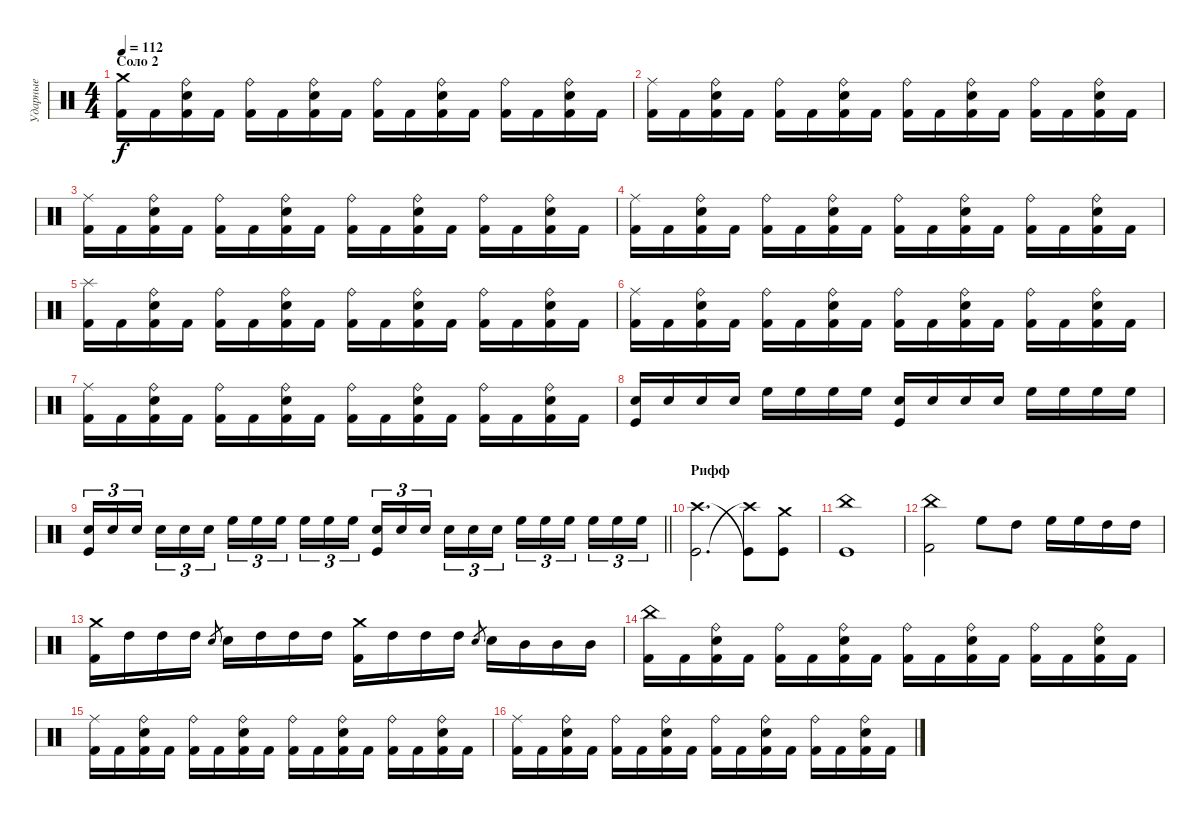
\track ("Ударные" "Ударные") {instrument percussion}
\staff {score}
\articulation defaults
\ts (4 4)
\section ("" "Соло 2")
\tempo 112
\clef neutral
\ks aminor
("Kick (hit) 2" "Crash medium (hit)").16{dy f} "Kick (hit) 2".16 ("Electric Snare (hit)" "Ride (bell)" "Kick (hit) 2").16 "Kick (hit) 2".16 ("Kick (hit) 2" "Ride (bell)").16 "Kick (hit) 2".16 ("Kick (hit) 2" "Electric Snare (hit)" "Ride (bell)").16 "Kick (hit) 2".16 ("Kick (hit) 2" "Ride (bell)").16 "Kick (hit) 2".16 ("Kick (hit) 2" "Electric Snare (hit)" "Ride (bell)").16 "Kick (hit) 2".16 ("Kick (hit) 2" "Ride (bell)").16 "Kick (hit) 2".16 ("Kick (hit) 2" "Ride (bell)" "Electric Snare (hit)").16 "Kick (hit) 2".16 |
("Kick (hit) 2" "Ride (middle)").16 "Kick (hit) 2".16 ("Electric Snare (hit)" "Ride (bell)" "Kick (hit) 2").16 "Kick (hit) 2".16 ("Kick (hit) 2" "Ride (bell)").16 "Kick (hit) 2".16 ("Kick (hit) 2" "Electric Snare (hit)" "Ride (bell)").16 "Kick (hit) 2".16 ("Kick (hit) 2" "Ride (bell)").16 "Kick (hit) 2".16 ("Kick (hit) 2" "Electric Snare (hit)" "Ride (bell)").16 "Kick (hit) 2".16 ("Kick (hit) 2" "Ride (bell)").16 "Kick (hit) 2".16 ("Kick (hit) 2" "Ride (bell)" "Electric Snare (hit)").16 "Kick (hit) 2".16 |
("Kick (hit) 2" "Ride (middle)").16 "Kick (hit) 2".16 ("Electric Snare (hit)" "Ride (bell)" "Kick (hit) 2").16 "Kick (hit) 2".16 ("Kick (hit) 2" "Ride (bell)").16 "Kick (hit) 2".16 ("Kick (hit) 2" "Electric Snare (hit)" "Ride (bell)").16 "Kick (hit) 2".16 ("Kick (hit) 2" "Ride (bell)").16 "Kick (hit) 2".16 ("Kick (hit) 2" "Electric Snare (hit)" "Ride (bell)").16 "Kick (hit) 2".16 ("Kick (hit) 2" "Ride (bell)").16 "Kick (hit) 2".16 ("Kick (hit) 2" "Ride (bell)" "Electric Snare (hit)").16 "Kick (hit) 2".16 |
("Kick (hit) 2" "Ride (middle)").16 "Kick (hit) 2".16 ("Electric Snare (hit)" "Ride (bell)" "Kick (hit) 2").16 "Kick (hit) 2".16 ("Kick (hit) 2" "Ride (bell)").16 "Kick (hit) 2".16 ("Kick (hit) 2" "Electric Snare (hit)" "Ride (bell)").16 "Kick (hit) 2".16 ("Kick (hit) 2" "Ride (bell)").16 "Kick (hit) 2".16 ("Kick (hit) 2" "Electric Snare (hit)" "Ride (bell)").16 "Kick (hit) 2".16 ("Kick (hit) 2" "Ride (bell)").16 "Kick (hit) 2".16 ("Kick (hit) 2" "Ride (bell)" "Electric Snare (hit)").16 "Kick (hit) 2".16 |
("Kick (hit) 2" "Splash (hit)").16 "Kick (hit) 2".16 ("Electric Snare (hit)" "Ride (bell)" "Kick (hit) 2").16 "Kick (hit) 2".16 ("Kick (hit) 2" "Ride (bell)").16 "Kick (hit) 2".16 ("Kick (hit) 2" "Electric Snare (hit)" "Ride (bell)").16 "Kick (hit) 2".16 ("Kick (hit) 2" "Ride (bell)").16 "Kick (hit) 2".16 ("Kick (hit) 2" "Electric Snare (hit)" "Ride (bell)").16 "Kick (hit) 2".16 ("Kick (hit) 2" "Ride (bell)").16 "Kick (hit) 2".16 ("Kick (hit) 2" "Ride (bell)" "Electric Snare (hit)").16 "Kick (hit) 2".16 |
("Kick (hit) 2" "Ride (middle)").16 "Kick (hit) 2".16 ("Electric Snare (hit)" "Ride (bell)" "Kick (hit) 2").16 "Kick (hit) 2".16 ("Kick (hit) 2" "Ride (bell)").16 "Kick (hit) 2".16 ("Kick (hit) 2" "Electric Snare (hit)" "Ride (bell)").16 "Kick (hit) 2".16 ("Kick (hit) 2" "Ride (bell)").16 "Kick (hit) 2".16 ("Kick (hit) 2" "Electric Snare (hit)" "Ride (bell)").16 "Kick (hit) 2".16 ("Kick (hit) 2" "Ride (bell)").16 "Kick (hit) 2".16 ("Kick (hit) 2" "Ride (bell)" "Electric Snare (hit)").16 "Kick (hit) 2".16 |
("Kick (hit) 2" "Ride (middle)").16 "Kick (hit) 2".16 ("Electric Snare (hit)" "Ride (bell)" "Kick (hit) 2").16 "Kick (hit) 2".16 ("Kick (hit) 2" "Ride (bell)").16 "Kick (hit) 2".16 ("Kick (hit) 2" "Electric Snare (hit)" "Ride (bell)").16 "Kick (hit) 2".16 ("Kick (hit) 2" "Ride (bell)").16 "Kick (hit) 2".16 ("Kick (hit) 2" "Electric Snare (hit)" "Ride (bell)").16 "Kick (hit) 2".16 ("Kick (hit) 2" "Ride (bell)").16 "Kick (hit) 2".16 ("Kick (hit) 2" "Ride (bell)" "Electric Snare (hit)").16 "Kick (hit) 2".16 |
("Electric Snare (hit)" "Kick (hit)").16 "Electric Snare (hit)".16 "Electric Snare (hit)".16 "Electric Snare (hit)".16 "High Floor Tom (hit)".16 "High Floor Tom (hit)".16 "High Floor Tom (hit)".16 "High Floor Tom (hit)".16 ("Electric Snare (hit)" "Kick (hit)").16 "Electric Snare (hit)".16 "Electric Snare (hit)".16 "Electric Snare (hit)".16 "High Floor Tom (hit)".16 "High Floor Tom (hit)".16 "High Floor Tom (hit)".16 "High Floor Tom (hit)".16 |
\barLineRight lightlight
("Electric Snare (hit)" "Kick (hit)").16{tu (3 2)} "Electric Snare (hit)".16{tu (3 2)} "Electric Snare (hit)".16{tu (3 2) beam splitsecondary} "Electric Snare (hit)".16{tu (3 2)} "Electric Snare (hit)".16{tu (3 2)} "Electric Snare (hit)".16{tu (3 2)} "High Floor Tom (hit)".16{tu (3 2)} "High Floor Tom (hit)".16{tu (3 2)} "High Floor Tom (hit)".16{tu (3 2) beam splitsecondary} "High Floor Tom (hit)".16{tu (3 2)} "High Floor Tom (hit)".16{tu (3 2)} "High Floor Tom (hit)".16{tu (3 2)} ("Electric Snare (hit)" "Kick (hit)").16{tu (3 2)} "Electric Snare (hit)".16{tu (3 2)} "Electric Snare (hit)".16{tu (3 2) beam splitsecondary} "Electric Snare (hit)".16{tu (3 2)} "Electric Snare (hit)".16{tu (3 2)} "Electric Snare (hit)".16{tu (3 2)} "High Floor Tom (hit)".16{tu (3 2)} "High Floor Tom (hit)".16{tu (3 2)} "High Floor Tom (hit)".16{tu (3 2) beam splitsecondary} "High Floor Tom (hit)".16{tu (3 2)} "High Floor Tom (hit)".16{tu (3 2)} "High Floor Tom (hit)".16{tu (3 2)} |
\section ("" "Рифф")
("Crash high (hit)" "Kick (hit)").2{d} ("Kick (hit)"{t} "Crash high (hit)"{t}).8 ("Kick (hit)" "Crash medium (hit)").8 |
("Kick (hit)" "China (hit)").1 |
("Kick (hit) 2" "China (hit)").2 "High Floor Tom (hit)".8 "High Tom (hit)".8 "High Floor Tom (hit)".16 "High Floor Tom (hit)".16 "High Tom (hit)".16 "High Tom (hit)".16 |
("Kick (hit) 2" "Crash medium (hit)").16 "High Tom (hit)".16 "High Tom (hit)".16 "High Tom (hit)".16 "Electric Snare (hit)".8{gr} "Electric Snare (hit)".16 "High Tom (hit)".16 "High Tom (hit)".16 "High Tom (hit)".16 ("Kick (hit) 2" "Crash medium (hit)").16 "High Tom (hit)".16 "High Tom (hit)".16 "High Tom (hit)".16 "Electric Snare (hit)".8{gr} "Electric Snare (hit)".16 "Mid Tom (hit)".16 "Mid Tom (hit)".16 "Mid Tom (hit)".16 |
("Kick (hit) 2" "China (hit)").16 "Kick (hit) 2".16 ("Electric Snare (hit)" "Ride (bell)" "Kick (hit) 2").16 "Kick (hit) 2".16 ("Kick (hit) 2" "Ride (bell)").16 "Kick (hit) 2".16 ("Kick (hit) 2" "Electric Snare (hit)" "Ride (bell)").16 "Kick (hit) 2".16 ("Kick (hit) 2" "Ride (bell)").16 "Kick (hit) 2".16 ("Kick (hit) 2" "Electric Snare (hit)" "Ride (bell)").16 "Kick (hit) 2".16 ("Kick (hit) 2" "Ride (bell)").16 "Kick (hit) 2".16 ("Kick (hit) 2" "Ride (bell)" "Electric Snare (hit)").16 "Kick (hit) 2".16 |
("Kick (hit) 2" "Ride (middle)").16 "Kick (hit) 2".16 ("Electric Snare (hit)" "Ride (bell)" "Kick (hit) 2").16 "Kick (hit) 2".16 ("Kick (hit) 2" "Ride (bell)").16 "Kick (hit) 2".16 ("Kick (hit) 2" "Electric Snare (hit)" "Ride (bell)").16 "Kick (hit) 2".16 ("Kick (hit) 2" "Ride (bell)").16 "Kick (hit) 2".16 ("Kick (hit) 2" "Electric Snare (hit)" "Ride (bell)").16 "Kick (hit) 2".16 ("Kick (hit) 2" "Ride (bell)").16 "Kick (hit) 2".16 ("Kick (hit) 2" "Ride (bell)" "Electric Snare (hit)").16 "Kick (hit) 2".16 |
("Kick (hit) 2" "Ride (middle)").16 "Kick (hit) 2".16 ("Electric Snare (hit)" "Ride (bell)" "Kick (hit) 2").16 "Kick (hit) 2".16 ("Kick (hit) 2" "Ride (bell)").16 "Kick (hit) 2".16 ("Kick (hit) 2" "Electric Snare (hit)" "Ride (bell)").16 "Kick (hit) 2".16 ("Kick (hit) 2" "Ride (bell)").16 "Kick (hit) 2".16 ("Kick (hit) 2" "Electric Snare (hit)" "Ride (bell)").16 "Kick (hit) 2".16 ("Kick (hit) 2" "Ride (bell)").16 "Kick (hit) 2".16 ("Kick (hit) 2" "Ride (bell)" "Electric Snare (hit)").16 "Kick (hit) 2".16
